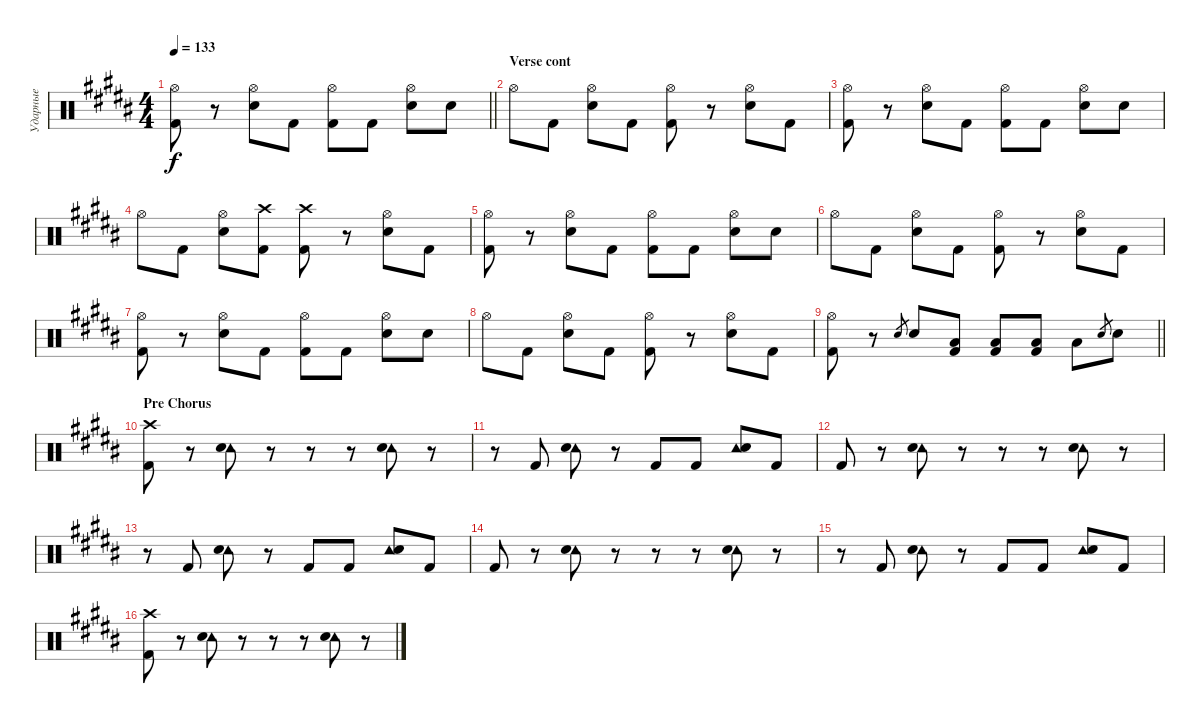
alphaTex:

\track ("Ударные" "Ударные") {instrument percussion}
\staff {score}
\articulation defaults
\ts (4 4)
\tempo 133
\clef neutral
\barLineRight lightlight
\ks b
("Hi-Hat (open)" "Kick (hit) 2").8{dy f} r.8 ("Hi-Hat (open)" "Electric Snare (hit)").8 "Kick (hit) 2".8 ("Hi-Hat (open)" "Kick (hit) 2").8 "Kick (hit) 2".8 ("Hi-Hat (open)" "Electric Snare (hit)").8 "Electric Snare (hit)".8 |
\section ("" "Verse cont")
"Hi-Hat (open)".8 "Kick (hit) 2".8 ("Hi-Hat (open)" "Electric Snare (hit)").8 "Kick (hit) 2".8 ("Hi-Hat (open)" "Kick (hit) 2").8 r.8 ("Hi-Hat (open)" "Electric Snare (hit)").8 "Kick (hit) 2".8 |
("Hi-Hat (open)" "Kick (hit) 2").8 r.8 ("Hi-Hat (open)" "Electric Snare (hit)").8 "Kick (hit) 2".8 ("Hi-Hat (open)" "Kick (hit) 2").8 "Kick (hit) 2".8 ("Hi-Hat (open)" "Electric Snare (hit)").8 "Electric Snare (hit)".8 |
"Hi-Hat (open)".8 "Kick (hit) 2".8 ("Hi-Hat (open)" "Electric Snare (hit)").8 ("Crash high (hit)" "Kick (hit) 2").8 ("Crash high (hit)" "Kick (hit) 2").8 r.8 ("Hi-Hat (open)" "Electric Snare (hit)").8 "Kick (hit) 2".8 |
("Hi-Hat (open)" "Kick (hit) 2").8 r.8 ("Hi-Hat (open)" "Electric Snare (hit)").8 "Kick (hit) 2".8 ("Hi-Hat (open)" "Kick (hit) 2").8 "Kick (hit) 2".8 ("Hi-Hat (open)" "Electric Snare (hit)").8 "Electric Snare (hit)".8 |
"Hi-Hat (open)".8 "Kick (hit) 2".8 ("Hi-Hat (open)" "Electric Snare (hit)").8 "Kick (hit) 2".8 ("Hi-Hat (open)" "Kick (hit) 2").8 r.8 ("Hi-Hat (open)" "Electric Snare (hit)").8 "Kick (hit) 2".8 |
("Hi-Hat (open)" "Kick (hit) 2").8 r.8 ("Hi-Hat (open)" "Electric Snare (hit)").8 "Kick (hit) 2".8 ("Hi-Hat (open)" "Kick (hit) 2").8 "Kick (hit) 2".8 ("Hi-Hat (open)" "Electric Snare (hit)").8 "Electric Snare (hit)".8 |
"Hi-Hat (open)".8 "Kick (hit) 2".8 ("Hi-Hat (open)" "Electric Snare (hit)").8 "Kick (hit) 2".8 ("Hi-Hat (open)" "Kick (hit) 2").8 r.8 ("Hi-Hat (open)" "Electric Snare (hit)").8 "Kick (hit) 2".8 |
\barLineRight lightlight
("Hi-Hat (open)" "Kick (hit) 2").8 r.8 "Electric Snare (hit)".8{gr} "Electric Snare (hit)".8 ("Low Tom (hit)" "Kick (hit) 2").8 ("Low Tom (hit)" "Kick (hit) 2").8 ("Low Tom (hit)" "Kick (hit) 2").8 "Low Tom (hit)".8 "Electric Snare (hit)".8{gr} "Electric Snare (hit)".8 |
\section ("" "Pre Chorus")
("Crash high (hit)" "Kick (hit) 2").8 r.8 ("Tambourine (hit)" "Electric Snare (hit)").8 r.8 r.8 r.8 ("Tambourine (hit)" "Electric Snare (hit)").8 r.8 |
r.8 "Kick (hit) 2".8 ("Tambourine (hit)" "Electric Snare (hit)").8 r.8 "Kick (hit) 2".8 "Kick (hit) 2".8 ("Tambourine (hit)" "Electric Snare (hit)").8 "Kick (hit) 2".8 |
"Kick (hit) 2".8 r.8 ("Tambourine (hit)" "Electric Snare (hit)").8 r.8 r.8 r.8 ("Tambourine (hit)" "Electric Snare (hit)").8 r.8 |
r.8 "Kick (hit) 2".8 ("Tambourine (hit)" "Electric Snare (hit)").8 r.8 "Kick (hit) 2".8 "Kick (hit) 2".8 ("Tambourine (hit)" "Electric Snare (hit)").8 "Kick (hit) 2".8 |
"Kick (hit) 2".8 r.8 ("Tambourine (hit)" "Electric Snare (hit)").8 r.8 r.8 r.8 ("Tambourine (hit)" "Electric Snare (hit)").8 r.8 |
r.8 "Kick (hit) 2".8 ("Tambourine (hit)" "Electric Snare (hit)").8 r.8 "Kick (hit) 2".8 "Kick (hit) 2".8 ("Tambourine (hit)" "Electric Snare (hit)").8 "Kick (hit) 2".8 |
("Crash high (hit)" "Kick (hit) 2").8 r.8 ("Tambourine (hit)" "Electric Snare (hit)").8 r.8 r.8 r.8 ("Tambourine (hit)" "Electric Snare (hit)").8 r.8
